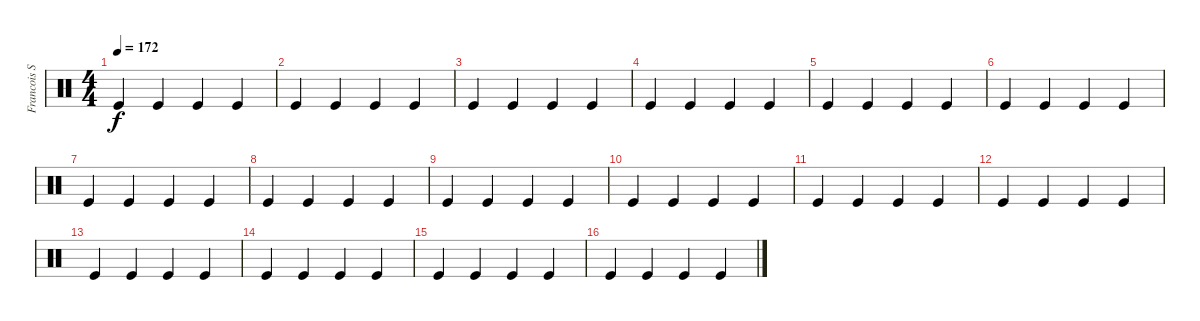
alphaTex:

\track ("Francois Soulier" "Francois S") {instrument percussion}
\staff {score}
\articulation defaults
\ts (4 4)
\tempo 172
\clef neutral
\ks c "Kick (hit)".4{dy f} "Kick (hit)".4 "Kick (hit)".4 "Kick (hit)".4
|
"Kick (hit)".4 "Kick (hit)".4 "Kick (hit)".4 "Kick (hit)".4 |
"Kick (hit)".4 "Kick (hit)".4 "Kick (hit)".4 "Kick (hit)".4 |
"Kick (hit)".4 "Kick (hit)".4 "Kick (hit)".4 "Kick (hit)".4 |
"Kick (hit)".4 "Kick (hit)".4 "Kick (hit)".4 "Kick (hit)".4 |
"Kick (hit)".4 "Kick (hit)".4 "Kick (hit)".4 "Kick (hit)".4 |
"Kick (hit)".4 "Kick (hit)".4 "Kick (hit)".4 "Kick (hit)".4 |
"Kick (hit)".4 "Kick (hit)".4 "Kick (hit)".4 "Kick (hit)".4 |
"Kick (hit)".4 "Kick (hit)".4 "Kick (hit)".4 "Kick (hit)".4 |
"Kick (hit)".4 "Kick (hit)".4 "Kick (hit)".4 "Kick (hit)".4 |
"Kick (hit)".4 "Kick (hit)".4 "Kick (hit)".4 "Kick (hit)".4 |
"Kick (hit)".4 "Kick (hit)".4 "Kick (hit)".4 "Kick (hit)".4 |
"Kick (hit)".4 "Kick (hit)".4 "Kick (hit)".4 "Kick (hit)".4 |
"Kick (hit)".4 "Kick (hit)".4 "Kick (hit)".4 "Kick (hit)".4 |
"Kick (hit)".4 "Kick (hit)".4 "Kick (hit)".4 "Kick (hit)".4 |
"Kick (hit)".4 "Kick (hit)".4 "Kick (hit)".4 "Kick (hit)".4
